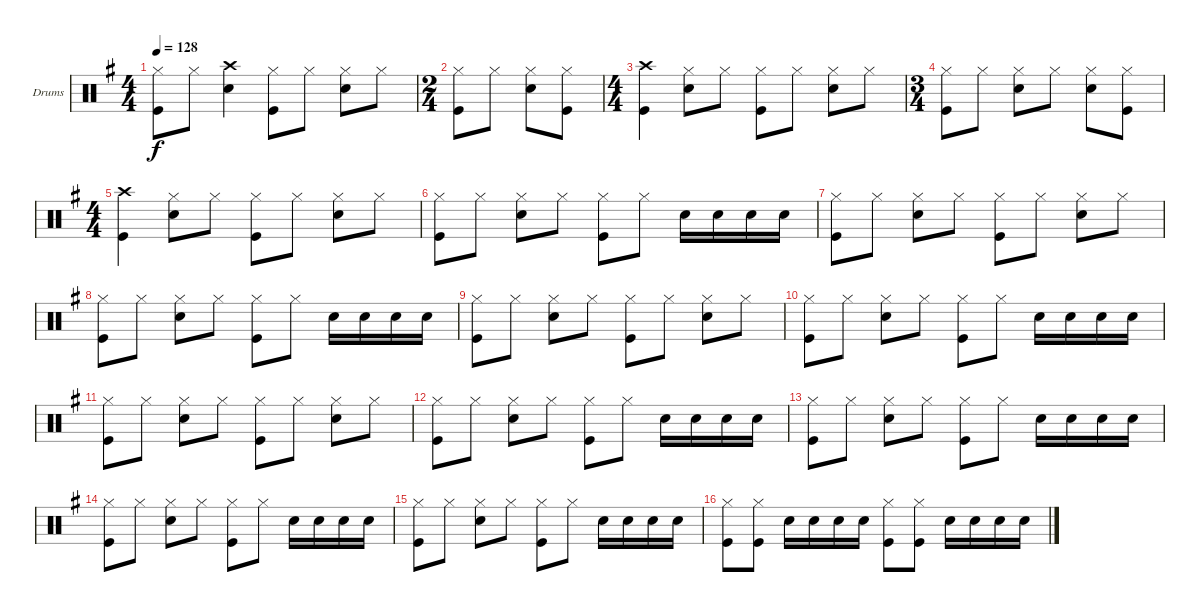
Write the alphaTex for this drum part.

\defaultSystemsLayout 4
\bracketExtendMode groupsimilarinstruments
\firstSystemTrackNameOrientation horizontal
\otherSystemsTrackNameOrientation horizontal
\track ("Drumkit" "Drums") {instrument percussion}
\staff {score}
\articulation defaults
\ts (4 4)
\tempo 128
\clef neutral
\ks g
("Hi-Hat (closed)" "Kick (hit)").8{dy f} "Hi-Hat (closed)".8 ("Snare (hit) 2" "Crash high (hit)").4 ("Hi-Hat (closed)" "Kick (hit)").8 "Hi-Hat (closed)".8 ("Snare (hit) 2" "Hi-Hat (closed)").8 "Hi-Hat (closed)".8 |
\ts (2 4)
("Kick (hit)" "Hi-Hat (closed)").8 "Hi-Hat (closed)".8 ("Snare (hit) 2" "Hi-Hat (closed)").8 ("Kick (hit)" "Hi-Hat (closed)").8 |
\ts (4 4)
("Crash high (hit)" "Kick (hit)").4 ("Snare (hit) 2" "Hi-Hat (closed)").8 "Hi-Hat (closed)".8 ("Hi-Hat (closed)" "Kick (hit)").8 "Hi-Hat (closed)".8 ("Snare (hit) 2" "Hi-Hat (closed)").8 "Hi-Hat (closed)".8 |
\ts (3 4)
("Kick (hit)" "Hi-Hat (closed)").8 "Hi-Hat (closed)".8 ("Snare (hit) 2" "Hi-Hat (closed)").8 "Hi-Hat (closed)".8 ("Hi-Hat (closed)" "Snare (hit) 2").8 ("Kick (hit)" "Hi-Hat (closed)").8 |
\ts (4 4)
("Kick (hit)" "Crash high (hit)").4 ("Hi-Hat (closed)" "Snare (hit) 2").8 "Hi-Hat (closed)".8 ("Hi-Hat (closed)" "Kick (hit)").8 "Hi-Hat (closed)".8 ("Snare (hit) 2" "Hi-Hat (closed)").8 "Hi-Hat (closed)".8 |
("Hi-Hat (closed)" "Kick (hit)").8 "Hi-Hat (closed)".8 ("Snare (hit) 2" "Hi-Hat (closed)").8 "Hi-Hat (closed)".8 ("Hi-Hat (closed)" "Kick (hit)").8 "Hi-Hat (closed)".8 "Snare (hit) 2".16 "Snare (hit) 2".16 "Snare (hit) 2".16 "Snare (hit) 2".16 |
("Hi-Hat (closed)" "Kick (hit)").8 "Hi-Hat (closed)".8 ("Snare (hit) 2" "Hi-Hat (closed)").8 "Hi-Hat (closed)".8 ("Hi-Hat (closed)" "Kick (hit)").8 "Hi-Hat (closed)".8 ("Snare (hit) 2" "Hi-Hat (closed)").8 "Hi-Hat (closed)".8 |
("Hi-Hat (closed)" "Kick (hit)").8 "Hi-Hat (closed)".8 ("Snare (hit) 2" "Hi-Hat (closed)").8 "Hi-Hat (closed)".8 ("Hi-Hat (closed)" "Kick (hit)").8 "Hi-Hat (closed)".8 "Snare (hit) 2".16 "Snare (hit) 2".16 "Snare (hit) 2".16 "Snare (hit) 2".16 |
("Hi-Hat (closed)" "Kick (hit)").8 "Hi-Hat (closed)".8 ("Snare (hit) 2" "Hi-Hat (closed)").8 "Hi-Hat (closed)".8 ("Hi-Hat (closed)" "Kick (hit)").8 "Hi-Hat (closed)".8 ("Snare (hit) 2" "Hi-Hat (closed)").8 "Hi-Hat (closed)".8 |
("Hi-Hat (closed)" "Kick (hit)").8 "Hi-Hat (closed)".8 ("Snare (hit) 2" "Hi-Hat (closed)").8 "Hi-Hat (closed)".8 ("Hi-Hat (closed)" "Kick (hit)").8 "Hi-Hat (closed)".8 "Snare (hit) 2".16 "Snare (hit) 2".16 "Snare (hit) 2".16 "Snare (hit) 2".16 |
("Hi-Hat (closed)" "Kick (hit)").8 "Hi-Hat (closed)".8 ("Snare (hit) 2" "Hi-Hat (closed)").8 "Hi-Hat (closed)".8 ("Hi-Hat (closed)" "Kick (hit)").8 "Hi-Hat (closed)".8 ("Snare (hit) 2" "Hi-Hat (closed)").8 "Hi-Hat (closed)".8 |
("Hi-Hat (closed)" "Kick (hit)").8 "Hi-Hat (closed)".8 ("Snare (hit) 2" "Hi-Hat (closed)").8 "Hi-Hat (closed)".8 ("Hi-Hat (closed)" "Kick (hit)").8 "Hi-Hat (closed)".8 "Snare (hit) 2".16 "Snare (hit) 2".16 "Snare (hit) 2".16 "Snare (hit) 2".16 |
("Hi-Hat (closed)" "Kick (hit)").8 "Hi-Hat (closed)".8 ("Snare (hit) 2" "Hi-Hat (closed)").8 "Hi-Hat (closed)".8 ("Hi-Hat (closed)" "Kick (hit)").8 "Hi-Hat (closed)".8 "Snare (hit) 2".16 "Snare (hit) 2".16 "Snare (hit) 2".16 "Snare (hit) 2".16 |
("Hi-Hat (closed)" "Kick (hit)").8 "Hi-Hat (closed)".8 ("Snare (hit) 2" "Hi-Hat (closed)").8 "Hi-Hat (closed)".8 ("Hi-Hat (closed)" "Kick (hit)").8 "Hi-Hat (closed)".8 "Snare (hit) 2".16 "Snare (hit) 2".16 "Snare (hit) 2".16 "Snare (hit) 2".16 |
("Hi-Hat (closed)" "Kick (hit)").8 "Hi-Hat (closed)".8 ("Snare (hit) 2" "Hi-Hat (closed)").8 "Hi-Hat (closed)".8 ("Hi-Hat (closed)" "Kick (hit)").8 "Hi-Hat (closed)".8 "Snare (hit) 2".16 "Snare (hit) 2".16 "Snare (hit) 2".16 "Snare (hit) 2".16 |
("Kick (hit)" "Hi-Hat (closed)").8 ("Kick (hit)" "Hi-Hat (closed)").8 "Snare (hit) 2".16 "Snare (hit) 2".16 "Snare (hit) 2".16 "Snare (hit) 2".16 ("Kick (hit)" "Hi-Hat (closed)").8 ("Kick (hit)" "Hi-Hat (closed)").8 "Snare (hit) 2".16 "Snare (hit) 2".16 "Snare (hit) 2".16 "Snare (hit) 2".16
